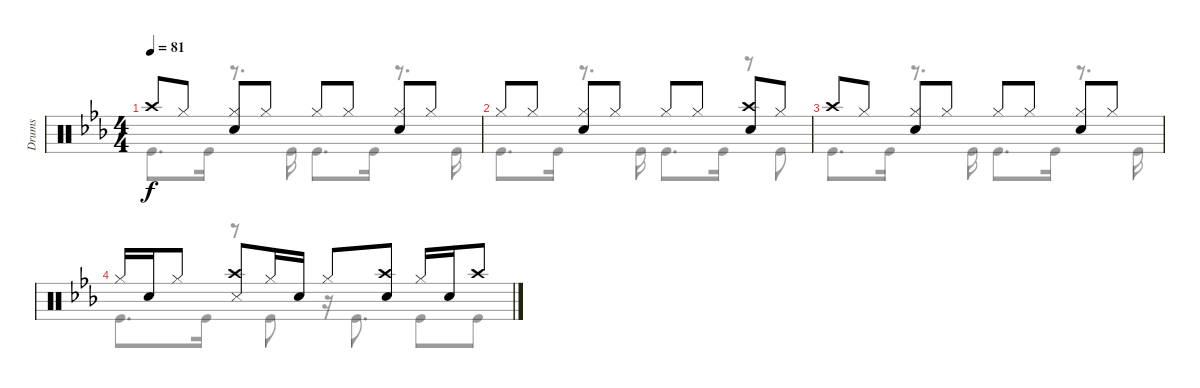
\track ("Drums" "Drums") {instrument percussion}
\staff {score}
\articulation defaults
\voice
\ts (4 4)
\tempo 81
\clef neutral
\ks eb "Crash high (hit)".8{dy f beam Up} "Hi-Hat (closed)".8{beam Up}
("Hi-Hat (closed)" "Snare (hit) 2").8{beam Up} "Hi-Hat (closed)".8{beam Up} "Hi-Hat (closed)".8{beam Up} "Hi-Hat (closed)".8{beam Up} ("Hi-Hat (closed)" "Snare (hit) 2").8{beam Up} "Hi-Hat (closed)".8{beam Up} |
"Hi-Hat (closed)".8{beam Up} "Hi-Hat (closed)".8{beam Up} ("Hi-Hat (closed)" "Snare (hit) 2").8{beam Up} "Hi-Hat (closed)".8{beam Up} "Hi-Hat (closed)".8{beam Up} "Hi-Hat (closed)".8{beam Up} ("Crash high (hit)" "Snare (hit) 2").8{beam Up} "Hi-Hat (closed)".8{beam Up} |
"Crash high (hit)".8{beam Up} "Hi-Hat (closed)".8{beam Up} ("Hi-Hat (closed)" "Snare (hit) 2").8{beam Up} "Hi-Hat (closed)".8{beam Up} "Hi-Hat (closed)".8{beam Up} "Hi-Hat (closed)".8{beam Up} ("Hi-Hat (closed)" "Snare (hit) 2").8{beam Up} "Hi-Hat (closed)".8{beam Up} |
"Hi-Hat (closed)".16{beam Up} "Snare (hit) 2".16{beam Up} "Hi-Hat (closed)".8{beam Up} ("Snare (side stick) 3" "Crash high (hit)").8{beam Up} "Hi-Hat (closed)".16{beam Up} "Snare (hit) 2".16{beam Up} "Hi-Hat (closed)".8{beam Up} ("Crash high (hit)" "Snare (hit) 2").8{beam Up} "Hi-Hat (closed)".16{beam Up} "Snare (hit) 2".16{beam Up} "Crash high (hit)".8{beam Up}
\voice
\clef neutral
\ottava regular
\simile none
\ks eb "Kick (hit)".8{d dy f} "Kick (hit)".16
r.8{d} "Kick (hit)".16 "Kick (hit)".8{d} "Kick (hit)".16 r.8{d} "Kick (hit)".16 |
"Kick (hit)".8{d} "Kick (hit)".16 r.8{d} "Kick (hit)".16 "Kick (hit)".8{d} "Kick (hit)".16 r.8 "Kick (hit)".8 |
"Kick (hit)".8{d} "Kick (hit)".16 r.8{d} "Kick (hit)".16 "Kick (hit)".8{d} "Kick (hit)".16 r.8{d} "Kick (hit)".16 |
"Kick (hit)".8{d} "Kick (hit)".16 r.8 "Kick (hit)".8 r.16 "Kick (hit)".8{d} "Kick (hit)".8 "Kick (hit)".8
